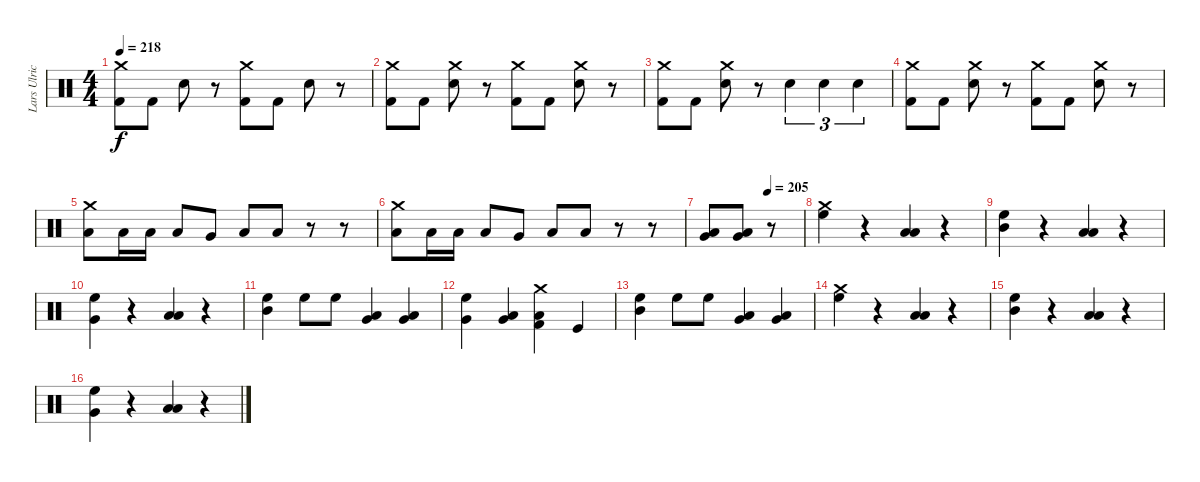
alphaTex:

\track ("Lars Ulrich" "Lars Ulric") {instrument percussion}
\staff {score}
\articulation defaults
\ts (4 4)
\tempo 218
\clef neutral
\ks c
("Crash medium (hit)" "Kick (hit) 2").8{dy f} "Kick (hit) 2".8 "Electric Snare (hit)".8 r.8 ("Crash medium (hit)" "Kick (hit) 2").8 "Kick (hit) 2".8 "Electric Snare (hit)".8 r.8 |
("Crash medium (hit)" "Kick (hit) 2").8 "Kick (hit) 2".8 ("Crash medium (hit)" "Electric Snare (hit)").8 r.8 ("Crash medium (hit)" "Kick (hit) 2").8 "Kick (hit) 2".8 ("Crash medium (hit)" "Electric Snare (hit)").8 r.8 |
("Crash medium (hit)" "Kick (hit) 2").8 "Kick (hit) 2".8 ("Crash medium (hit)" "Electric Snare (hit)").8 r.8 "Electric Snare (hit)".4{tu (3 2)} "Electric Snare (hit)".4{tu (3 2)} "Electric Snare (hit)".4{tu (3 2)} |
("Crash medium (hit)" "Kick (hit) 2").8 "Kick (hit) 2".8 ("Crash medium (hit)" "Electric Snare (hit)").8 r.8 ("Crash medium (hit)" "Kick (hit) 2").8 "Kick (hit) 2".8 ("Crash medium (hit)" "Electric Snare (hit)").8 r.8 |
("Crash medium (hit)" "Low Tom (hit)").8 "Low Tom (hit)".16 "Low Tom (hit)".16 "Low Tom (hit)".8 "Very Low Tom (hit)".8 "Low Tom (hit)".8 "Low Tom (hit)".8 r.8 r.8 |
("Crash medium (hit)" "Low Tom (hit)").8 "Low Tom (hit)".16 "Low Tom (hit)".16 "Low Tom (hit)".8 "Very Low Tom (hit)".8 "Low Tom (hit)".8 "Low Tom (hit)".8 r.8 r.8 |
\tempo (205 0.625)
("Low Floor Tom (hit)" "Very Low Tom (hit)").8 ("Low Floor Tom (hit)" "Very Low Tom (hit)").8 r.8 |
("Crash medium (hit)" "High Floor Tom (hit)").4 r.4 ("Low Tom (hit)" "Low Floor Tom (hit)").4 r.4 |
("Mid Tom (hit)" "High Floor Tom (hit)").4 r.4 ("Low Tom (hit)" "Low Floor Tom (hit)").4 r.4 |
("Very Low Tom (hit)" "High Floor Tom (hit)").4 r.4 ("Low Tom (hit)" "Low Floor Tom (hit)").4 r.4 |
("Mid Tom (hit)" "High Floor Tom (hit)").4 "High Floor Tom (hit)".8 "High Floor Tom (hit)".8 ("Very Low Tom (hit)" "Low Tom (hit)").4 ("Low Floor Tom (hit)" "Very Low Tom (hit)").4 |
("High Floor Tom (hit)" "Very Low Tom (hit)").4 ("Low Floor Tom (hit)" "Very Low Tom (hit)").4 ("Crash medium (hit)" "Low Tom (hit)" "Kick (hit) 2").4 "Kick (hit)".4 |
("Mid Tom (hit)" "High Floor Tom (hit)").4 "High Floor Tom (hit)".8 "High Floor Tom (hit)".8 ("Very Low Tom (hit)" "Low Tom (hit)").4 ("Low Floor Tom (hit)" "Very Low Tom (hit)").4 |
("Crash medium (hit)" "High Floor Tom (hit)").4 r.4 ("Low Tom (hit)" "Low Floor Tom (hit)").4 r.4 |
("Mid Tom (hit)" "High Floor Tom (hit)").4 r.4 ("Low Tom (hit)" "Low Floor Tom (hit)").4 r.4 |
("Very Low Tom (hit)" "High Floor Tom (hit)").4 r.4 ("Low Tom (hit)" "Low Floor Tom (hit)").4 r.4
